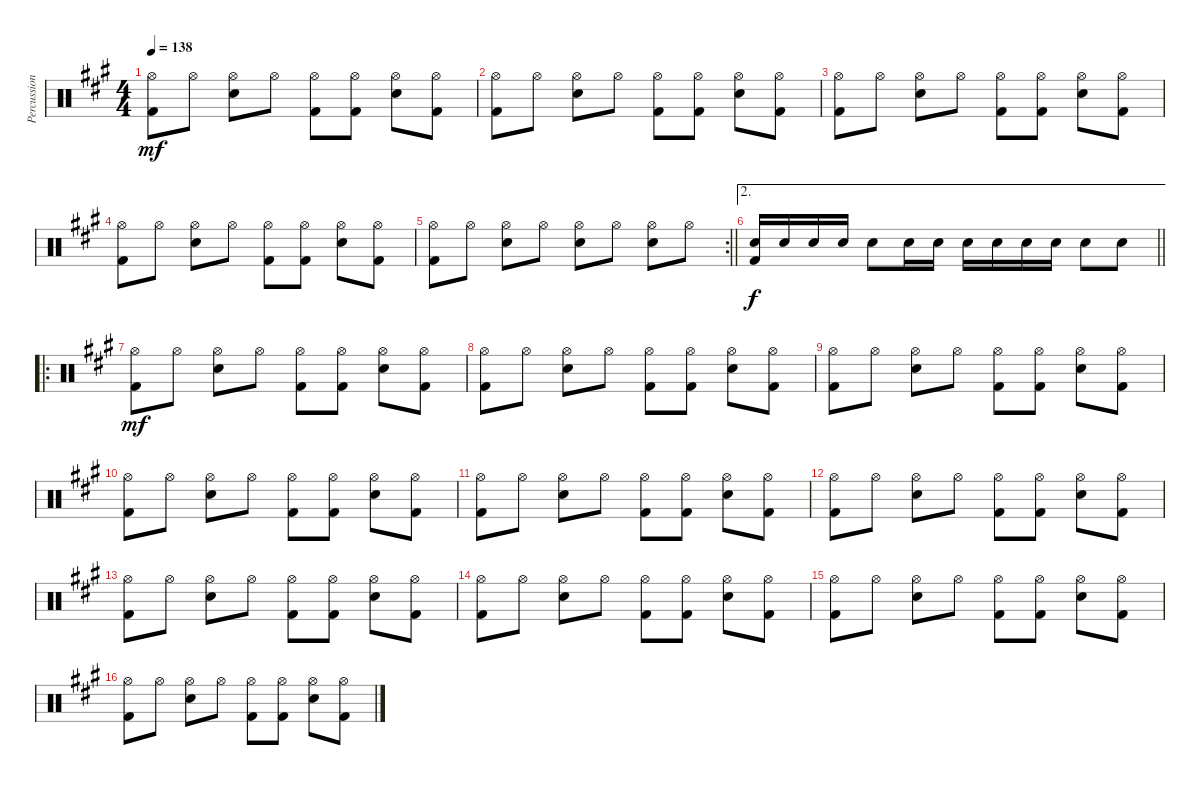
\track ("Percussion" "Percussion") {instrument percussion}
\staff {score}
\articulation defaults
\ts (4 4)
\tempo 138
\clef neutral
\ks a
("Hi-Hat (open)" "Kick (hit) 2").8{dy mf} "Hi-Hat (open)".8 ("Hi-Hat (open)" "Snare (hit) 2").8 "Hi-Hat (open)".8 ("Hi-Hat (open)" "Kick (hit) 2").8 ("Hi-Hat (open)" "Kick (hit) 2").8 ("Hi-Hat (open)" "Snare (hit) 2").8 ("Hi-Hat (open)" "Kick (hit) 2").8 |
("Hi-Hat (open)" "Kick (hit) 2").8 "Hi-Hat (open)".8 ("Hi-Hat (open)" "Snare (hit) 2").8 "Hi-Hat (open)".8 ("Hi-Hat (open)" "Kick (hit) 2").8 ("Hi-Hat (open)" "Kick (hit) 2").8 ("Hi-Hat (open)" "Snare (hit) 2").8 ("Hi-Hat (open)" "Kick (hit) 2").8 |
("Hi-Hat (open)" "Kick (hit) 2").8 "Hi-Hat (open)".8 ("Hi-Hat (open)" "Snare (hit) 2").8 "Hi-Hat (open)".8 ("Hi-Hat (open)" "Kick (hit) 2").8 ("Hi-Hat (open)" "Kick (hit) 2").8 ("Hi-Hat (open)" "Snare (hit) 2").8 ("Hi-Hat (open)" "Kick (hit) 2").8 |
("Hi-Hat (open)" "Kick (hit) 2").8 "Hi-Hat (open)".8 ("Hi-Hat (open)" "Snare (hit) 2").8 "Hi-Hat (open)".8 ("Hi-Hat (open)" "Kick (hit) 2").8 ("Hi-Hat (open)" "Kick (hit) 2").8 ("Hi-Hat (open)" "Snare (hit) 2").8 ("Hi-Hat (open)" "Kick (hit) 2").8 |
\rc 2
\barLineRight lightlight
("Hi-Hat (open)" "Kick (hit) 2").8 "Hi-Hat (open)".8 ("Hi-Hat (open)" "Snare (hit) 2").8 "Hi-Hat (open)".8 ("Hi-Hat (open)" "Snare (hit) 2").8 "Hi-Hat (open)".8 ("Hi-Hat (open)" "Snare (hit) 2").8 "Hi-Hat (open)".8 |
\ae 2
\barLineRight lightlight
("Snare (hit) 2" "Kick (hit) 2").16{dy f} "Snare (hit) 2".16 "Snare (hit) 2".16 "Snare (hit) 2".16 "Snare (hit) 2".8 "Snare (hit) 2".16 "Snare (hit) 2".16 "Snare (hit) 2".16 "Snare (hit) 2".16 "Snare (hit) 2".16 "Snare (hit) 2".16 "Snare (hit) 2".8 "Snare (hit) 2".8 |
\ro
("Hi-Hat (open)" "Kick (hit) 2").8{dy mf} "Hi-Hat (open)".8 ("Hi-Hat (open)" "Snare (hit) 2").8 "Hi-Hat (open)".8 ("Hi-Hat (open)" "Kick (hit) 2").8 ("Hi-Hat (open)" "Kick (hit) 2").8 ("Hi-Hat (open)" "Snare (hit) 2").8 ("Hi-Hat (open)" "Kick (hit) 2").8 |
("Hi-Hat (open)" "Kick (hit) 2").8 "Hi-Hat (open)".8 ("Hi-Hat (open)" "Snare (hit) 2").8 "Hi-Hat (open)".8 ("Hi-Hat (open)" "Kick (hit) 2").8 ("Hi-Hat (open)" "Kick (hit) 2").8 ("Hi-Hat (open)" "Snare (hit) 2").8 ("Hi-Hat (open)" "Kick (hit) 2").8 |
("Hi-Hat (open)" "Kick (hit) 2").8 "Hi-Hat (open)".8 ("Hi-Hat (open)" "Snare (hit) 2").8 "Hi-Hat (open)".8 ("Hi-Hat (open)" "Kick (hit) 2").8 ("Hi-Hat (open)" "Kick (hit) 2").8 ("Hi-Hat (open)" "Snare (hit) 2").8 ("Hi-Hat (open)" "Kick (hit) 2").8 |
("Hi-Hat (open)" "Kick (hit) 2").8 "Hi-Hat (open)".8 ("Hi-Hat (open)" "Snare (hit) 2").8 "Hi-Hat (open)".8 ("Hi-Hat (open)" "Kick (hit) 2").8 ("Hi-Hat (open)" "Kick (hit) 2").8 ("Hi-Hat (open)" "Snare (hit) 2").8 ("Hi-Hat (open)" "Kick (hit) 2").8 |
("Hi-Hat (open)" "Kick (hit) 2").8 "Hi-Hat (open)".8 ("Hi-Hat (open)" "Snare (hit) 2").8 "Hi-Hat (open)".8 ("Hi-Hat (open)" "Kick (hit) 2").8 ("Hi-Hat (open)" "Kick (hit) 2").8 ("Hi-Hat (open)" "Snare (hit) 2").8 ("Hi-Hat (open)" "Kick (hit) 2").8 |
("Hi-Hat (open)" "Kick (hit) 2").8 "Hi-Hat (open)".8 ("Hi-Hat (open)" "Snare (hit) 2").8 "Hi-Hat (open)".8 ("Hi-Hat (open)" "Kick (hit) 2").8 ("Hi-Hat (open)" "Kick (hit) 2").8 ("Hi-Hat (open)" "Snare (hit) 2").8 ("Hi-Hat (open)" "Kick (hit) 2").8 |
("Hi-Hat (open)" "Kick (hit) 2").8 "Hi-Hat (open)".8 ("Hi-Hat (open)" "Snare (hit) 2").8 "Hi-Hat (open)".8 ("Hi-Hat (open)" "Kick (hit) 2").8 ("Hi-Hat (open)" "Kick (hit) 2").8 ("Hi-Hat (open)" "Snare (hit) 2").8 ("Hi-Hat (open)" "Kick (hit) 2").8 |
("Hi-Hat (open)" "Kick (hit) 2").8 "Hi-Hat (open)".8 ("Hi-Hat (open)" "Snare (hit) 2").8 "Hi-Hat (open)".8 ("Hi-Hat (open)" "Kick (hit) 2").8 ("Hi-Hat (open)" "Kick (hit) 2").8 ("Hi-Hat (open)" "Snare (hit) 2").8 ("Hi-Hat (open)" "Kick (hit) 2").8 |
("Hi-Hat (open)" "Kick (hit) 2").8 "Hi-Hat (open)".8 ("Hi-Hat (open)" "Snare (hit) 2").8 "Hi-Hat (open)".8 ("Hi-Hat (open)" "Kick (hit) 2").8 ("Hi-Hat (open)" "Kick (hit) 2").8 ("Hi-Hat (open)" "Snare (hit) 2").8 ("Hi-Hat (open)" "Kick (hit) 2").8 |
("Hi-Hat (open)" "Kick (hit) 2").8 "Hi-Hat (open)".8 ("Hi-Hat (open)" "Snare (hit) 2").8 "Hi-Hat (open)".8 ("Hi-Hat (open)" "Kick (hit) 2").8 ("Hi-Hat (open)" "Kick (hit) 2").8 ("Hi-Hat (open)" "Snare (hit) 2").8 ("Hi-Hat (open)" "Kick (hit) 2").8
